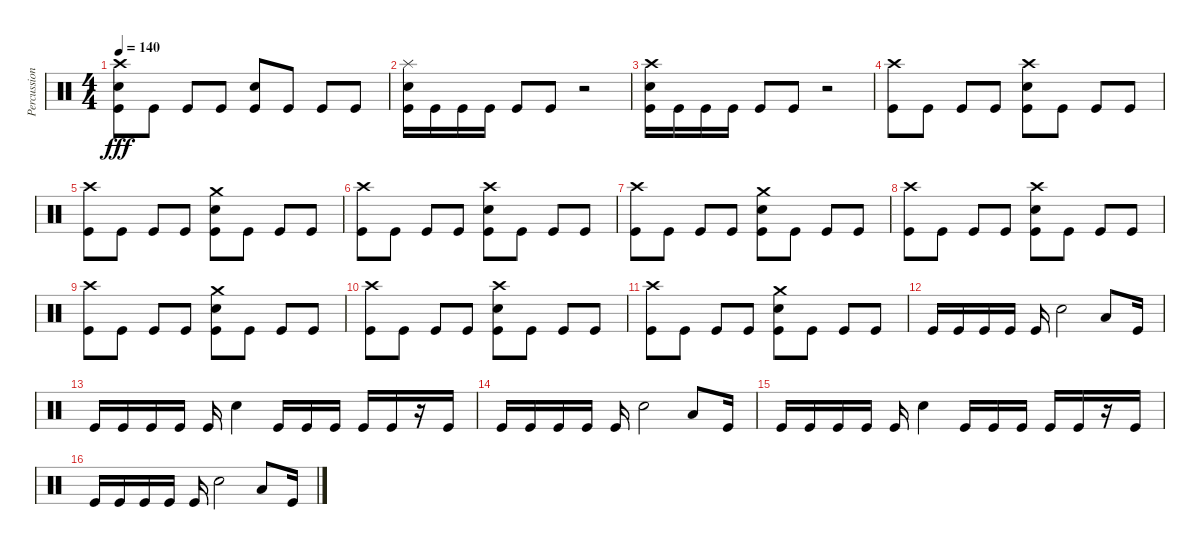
\track ("Percussion" "Percussion") {instrument percussion}
\staff {score}
\articulation defaults
\ts (4 4)
\tempo 140
\clef neutral
\ks c
("Crash high (hit)" "Snare (hit) 2" "Kick (hit)").8{dy fff} "Kick (hit)".8 "Kick (hit)".8 "Kick (hit)".8 ("Snare (hit) 2" "Kick (hit)").8 "Kick (hit)".8 "Kick (hit)".8 "Kick (hit)".8 |
("Splash (hit)" "Snare (hit) 2" "Kick (hit)").16 "Kick (hit)".16 "Kick (hit)".16 "Kick (hit)".16 "Kick (hit)".8 "Kick (hit)".8 r.2 |
("Crash high (hit)" "Snare (hit) 2" "Kick (hit)").16 "Kick (hit)".16 "Kick (hit)".16 "Kick (hit)".16 "Kick (hit)".8 "Kick (hit)".8 r.2 |
("Crash high (hit)" "Kick (hit)").8 "Kick (hit)".8 "Kick (hit)".8 "Kick (hit)".8 ("Crash high (hit)" "Snare (hit) 2" "Kick (hit)").8 "Kick (hit)".8 "Kick (hit)".8 "Kick (hit)".8 |
("Crash high (hit)" "Kick (hit)").8 "Kick (hit)".8 "Kick (hit)".8 "Kick (hit)".8 ("Crash medium (hit)" "Snare (hit) 2" "Kick (hit)").8 "Kick (hit)".8 "Kick (hit)".8 "Kick (hit)".8 |
("Crash high (hit)" "Kick (hit)").8 "Kick (hit)".8 "Kick (hit)".8 "Kick (hit)".8 ("Crash high (hit)" "Snare (hit) 2" "Kick (hit)").8 "Kick (hit)".8 "Kick (hit)".8 "Kick (hit)".8 |
("Crash high (hit)" "Kick (hit)").8 "Kick (hit)".8 "Kick (hit)".8 "Kick (hit)".8 ("Crash medium (hit)" "Snare (hit) 2" "Kick (hit)").8 "Kick (hit)".8 "Kick (hit)".8 "Kick (hit)".8 |
("Crash high (hit)" "Kick (hit)").8 "Kick (hit)".8 "Kick (hit)".8 "Kick (hit)".8 ("Crash high (hit)" "Snare (hit) 2" "Kick (hit)").8 "Kick (hit)".8 "Kick (hit)".8 "Kick (hit)".8 |
("Crash high (hit)" "Kick (hit)").8 "Kick (hit)".8 "Kick (hit)".8 "Kick (hit)".8 ("Crash medium (hit)" "Snare (hit) 2" "Kick (hit)").8 "Kick (hit)".8 "Kick (hit)".8 "Kick (hit)".8 |
("Crash high (hit)" "Kick (hit)").8 "Kick (hit)".8 "Kick (hit)".8 "Kick (hit)".8 ("Crash high (hit)" "Snare (hit) 2" "Kick (hit)").8 "Kick (hit)".8 "Kick (hit)".8 "Kick (hit)".8 |
("Crash high (hit)" "Kick (hit)").8 "Kick (hit)".8 "Kick (hit)".8 "Kick (hit)".8 ("Crash medium (hit)" "Snare (hit) 2" "Kick (hit)").8 "Kick (hit)".8 "Kick (hit)".8 "Kick (hit)".8 |
"Kick (hit)".16 "Kick (hit)".16 "Kick (hit)".16 "Kick (hit)".16 "Kick (hit)".16 "Snare (hit) 2".2 "Low Floor Tom (hit)".8 "Kick (hit)".16 |
"Kick (hit)".16 "Kick (hit)".16 "Kick (hit)".16 "Kick (hit)".16 "Kick (hit)".16 "Snare (hit) 2".4 "Kick (hit)".16 "Kick (hit)".16 "Kick (hit)".16 "Kick (hit)".16 "Kick (hit)".16 r.16 "Kick (hit)".16 |
"Kick (hit)".16 "Kick (hit)".16 "Kick (hit)".16 "Kick (hit)".16 "Kick (hit)".16 "Snare (hit) 2".2 "Low Floor Tom (hit)".8 "Kick (hit)".16 |
"Kick (hit)".16 "Kick (hit)".16 "Kick (hit)".16 "Kick (hit)".16 "Kick (hit)".16 "Snare (hit) 2".4 "Kick (hit)".16 "Kick (hit)".16 "Kick (hit)".16 "Kick (hit)".16 "Kick (hit)".16 r.16 "Kick (hit)".16 |
"Kick (hit)".16 "Kick (hit)".16 "Kick (hit)".16 "Kick (hit)".16 "Kick (hit)".16 "Snare (hit) 2".2 "Low Floor Tom (hit)".8 "Kick (hit)".16
